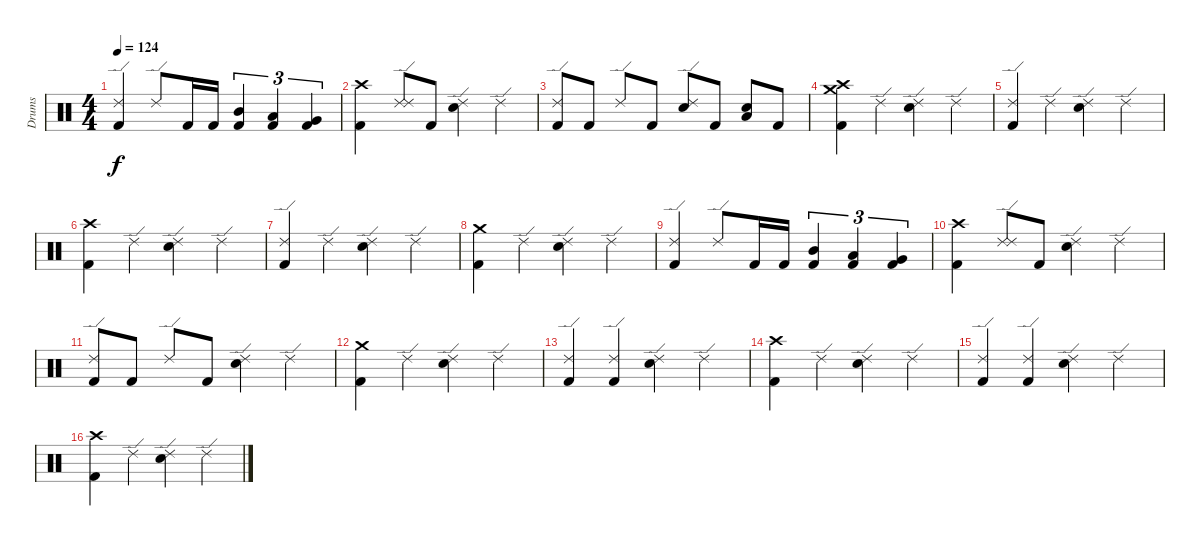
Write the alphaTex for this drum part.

\track ("Drums" "Drums") {instrument percussion}
\staff {score}
\articulation defaults
\ts (4 4)
\tempo 124
\clef neutral
\ks c
("Kick (hit) 2" "Ride (edge) 2").4{dy f} "Ride (edge) 2".8 "Kick (hit) 2".16 "Kick (hit) 2".16 ("Kick (hit) 2" "Mid Tom (hit)").4{tu (3 2)} ("Kick (hit) 2" "Low Tom (hit)").4{tu (3 2)} ("Kick (hit) 2" "Very Low Tom (hit)").4{tu (3 2)} |
("Kick (hit) 2" "Crash high (hit)").4 ("Ride (edge) 2" "Ride (edge) 2").8 "Kick (hit) 2".8 ("Electric Snare (hit)" "Ride (edge) 2").4 "Ride (edge) 2".4 |
("Kick (hit) 2" "Ride (edge) 2").8 "Kick (hit) 2".8 "Ride (edge) 2".8 "Kick (hit) 2".8 ("Electric Snare (hit)" "Ride (edge) 2").8 "Kick (hit) 2".8 ("Electric Snare (hit)" "Low Floor Tom (hit)").8 "Kick (hit) 2".8 |
\section ("" "")
("Kick (hit) 2" "Crash medium (hit)" "Crash high (hit)").4 "Ride (edge) 2".4 ("Electric Snare (hit)" "Ride (edge) 2").4 "Ride (edge) 2".4 |
("Kick (hit) 2" "Ride (edge) 2").4 "Ride (edge) 2".4 ("Electric Snare (hit)" "Ride (edge) 2").4 "Ride (edge) 2".4 |
("Kick (hit) 2" "Crash high (hit)").4 "Ride (edge) 2".4 ("Electric Snare (hit)" "Ride (edge) 2").4 "Ride (edge) 2".4 |
("Kick (hit) 2" "Ride (edge) 2").4 "Ride (edge) 2".4 ("Electric Snare (hit)" "Ride (edge) 2").4 "Ride (edge) 2".4 |
("Kick (hit) 2" "Crash medium (hit)").4 "Ride (edge) 2".4 ("Electric Snare (hit)" "Ride (edge) 2").4 "Ride (edge) 2".4 |
("Kick (hit) 2" "Ride (edge) 2").4 "Ride (edge) 2".8 "Kick (hit) 2".16 "Kick (hit) 2".16 ("Kick (hit) 2" "Mid Tom (hit)").4{tu (3 2)} ("Kick (hit) 2" "Low Tom (hit)").4{tu (3 2)} ("Kick (hit) 2" "Very Low Tom (hit)").4{tu (3 2)} |
("Kick (hit) 2" "Crash high (hit)").4 ("Ride (edge) 2" "Ride (edge) 2").8 "Kick (hit) 2".8 ("Electric Snare (hit)" "Ride (edge) 2").4 "Ride (edge) 2".4 |
("Kick (hit) 2" "Ride (edge) 2").8 "Kick (hit) 2".8 "Ride (edge) 2".8 "Kick (hit) 2".8 ("Electric Snare (hit)" "Ride (edge) 2").4 "Ride (edge) 2".4 |
\section ("" "")
("Kick (hit) 2" "Crash medium (hit)").4 "Ride (edge) 2".4 ("Electric Snare (hit)" "Ride (edge) 2").4 "Ride (edge) 2".4 |
("Kick (hit) 2" "Ride (edge) 2").4 ("Kick (hit) 2" "Ride (edge) 2").4 ("Electric Snare (hit)" "Ride (edge) 2").4 "Ride (edge) 2".4 |
("Kick (hit) 2" "Crash high (hit)").4 "Ride (edge) 2".4 ("Electric Snare (hit)" "Ride (edge) 2").4 "Ride (edge) 2".4 |
("Kick (hit) 2" "Ride (edge) 2").4 ("Kick (hit) 2" "Ride (edge) 2").4 ("Electric Snare (hit)" "Ride (edge) 2").4 "Ride (edge) 2".4 |
("Kick (hit) 2" "Crash high (hit)").4 "Ride (edge) 2".4 ("Electric Snare (hit)" "Ride (edge) 2").4 "Ride (edge) 2".4
